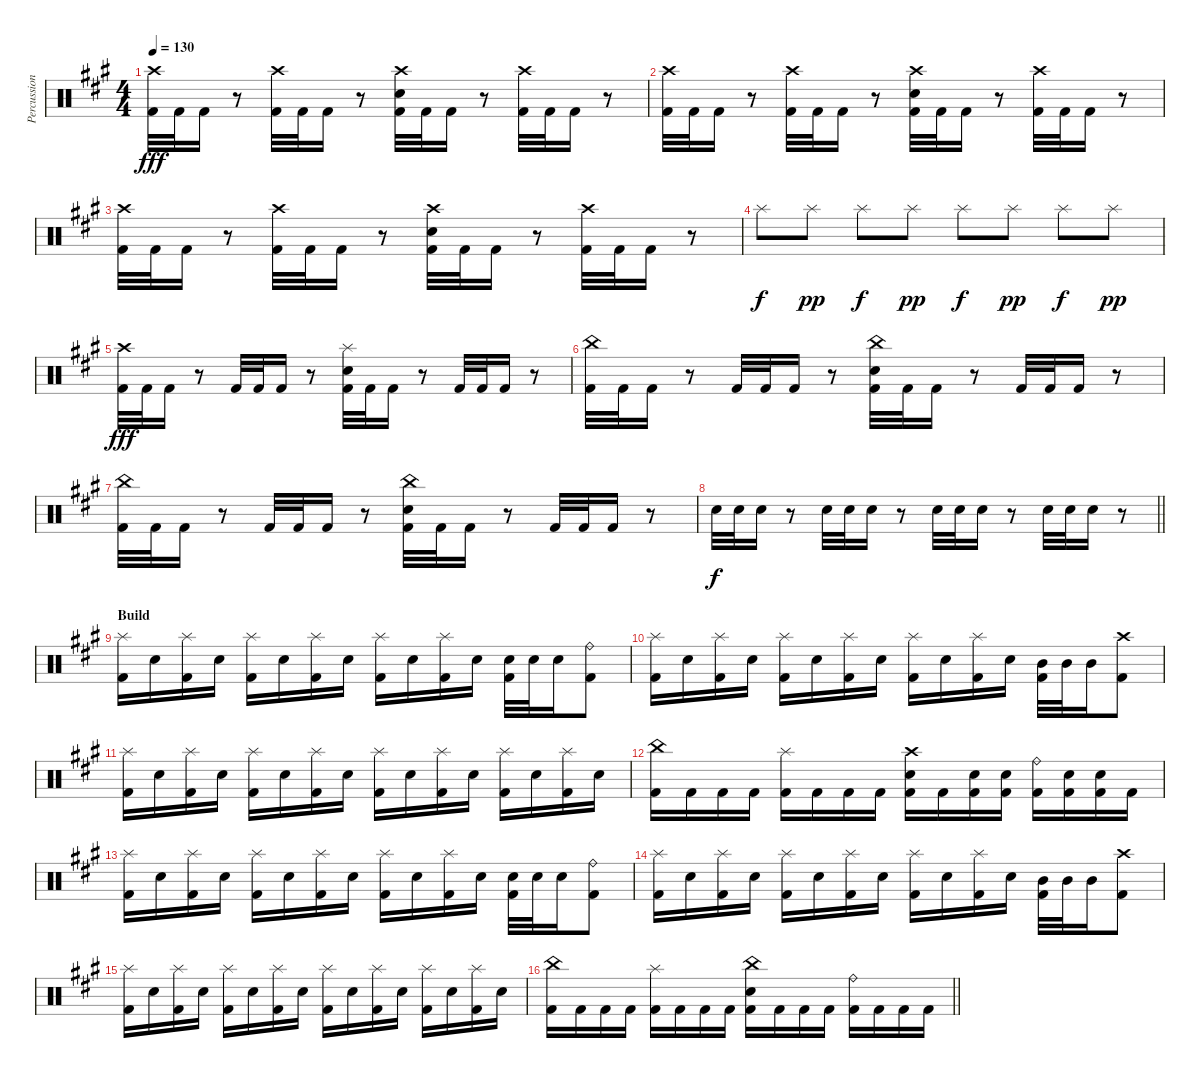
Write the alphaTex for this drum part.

\track ("Percussion" "Percussion") {instrument percussion bank 127}
\staff {score}
\articulation defaults
\ts (4 4)
\tempo 130
\clef neutral
\ks a
("Crash high (hit)" "Kick (hit) 2").32{dy fff} "Kick (hit) 2".32 "Kick (hit) 2".16 r.8 ("Crash high (hit)" "Kick (hit) 2").32 "Kick (hit) 2".32 "Kick (hit) 2".16 r.8 ("Crash high (hit)" "Electric Snare (hit)" "Kick (hit) 2").32 "Kick (hit) 2".32 "Kick (hit) 2".16 r.8 ("Crash high (hit)" "Kick (hit) 2").32 "Kick (hit) 2".32 "Kick (hit) 2".16 r.8 |
("Crash high (hit)" "Kick (hit) 2").32 "Kick (hit) 2".32 "Kick (hit) 2".16 r.8 ("Crash high (hit)" "Kick (hit) 2").32 "Kick (hit) 2".32 "Kick (hit) 2".16 r.8 ("Crash high (hit)" "Electric Snare (hit)" "Kick (hit) 2").32 "Kick (hit) 2".32 "Kick (hit) 2".16 r.8 ("Crash high (hit)" "Kick (hit) 2").32 "Kick (hit) 2".32 "Kick (hit) 2".16 r.8 |
("Crash high (hit)" "Kick (hit) 2").32 "Kick (hit) 2".32 "Kick (hit) 2".16 r.8 ("Crash high (hit)" "Kick (hit) 2").32 "Kick (hit) 2".32 "Kick (hit) 2".16 r.8 ("Crash high (hit)" "Electric Snare (hit)" "Kick (hit) 2").32 "Kick (hit) 2".32 "Kick (hit) 2".16 r.8 ("Crash high (hit)" "Kick (hit) 2").32 "Kick (hit) 2".32 "Kick (hit) 2".16 r.8 |
"Splash (hit)".8{dy f} "Splash (hit)".8{dy pp} "Splash (hit)".8{dy f} "Splash (hit)".8{dy pp} "Splash (hit)".8{dy f} "Splash (hit)".8{dy pp} "Splash (hit)".8{dy f} "Splash (hit)".8{dy pp} |
("Crash high (hit)" "Kick (hit) 2").32{dy fff} "Kick (hit) 2".32 "Kick (hit) 2".16 r.8 "Kick (hit) 2".32 "Kick (hit) 2".32 "Kick (hit) 2".16 r.8 ("Splash (hit)" "Electric Snare (hit)" "Kick (hit) 2").32 "Kick (hit) 2".32 "Kick (hit) 2".16 r.8 "Kick (hit) 2".32 "Kick (hit) 2".32 "Kick (hit) 2".16 r.8 |
("China (hit)" "Kick (hit) 2").32 "Kick (hit) 2".32 "Kick (hit) 2".16 r.8 "Kick (hit) 2".32 "Kick (hit) 2".32 "Kick (hit) 2".16 r.8 ("China (hit)" "Electric Snare (hit)" "Kick (hit) 2").32 "Kick (hit) 2".32 "Kick (hit) 2".16 r.8 "Kick (hit) 2".32 "Kick (hit) 2".32 "Kick (hit) 2".16 r.8 |
("China (hit)" "Kick (hit) 2").32 "Kick (hit) 2".32 "Kick (hit) 2".16 r.8 "Kick (hit) 2".32 "Kick (hit) 2".32 "Kick (hit) 2".16 r.8 ("China (hit)" "Electric Snare (hit)" "Kick (hit) 2").32 "Kick (hit) 2".32 "Kick (hit) 2".16 r.8 "Kick (hit) 2".32 "Kick (hit) 2".32 "Kick (hit) 2".16 r.8 |
\barLineRight lightlight "Electric Snare (hit)".32{dy f} "Electric Snare (hit)".32 "Electric Snare (hit)".16
r.8 "Electric Snare (hit)".32 "Electric Snare (hit)".32 "Electric Snare (hit)".16 r.8 "Electric Snare (hit)".32 "Electric Snare (hit)".32 "Electric Snare (hit)".16 r.8 "Electric Snare (hit)".32 "Electric Snare (hit)".32 "Electric Snare (hit)".16 r.8 |
\section ("" "Build")
("Splash (hit)" "Kick (hit) 2").16 "Electric Snare (hit)".16 ("Splash (hit)" "Kick (hit) 2").16 "Electric Snare (hit)".16 ("Splash (hit)" "Kick (hit) 2").16 "Electric Snare (hit)".16 ("Splash (hit)" "Kick (hit) 2").16 "Electric Snare (hit)".16 ("Splash (hit)" "Kick (hit) 2").16 "Electric Snare (hit)".16 ("Splash (hit)" "Kick (hit) 2").16 "Electric Snare (hit)".16 ("Electric Snare (hit)" "Kick (hit) 2").32 "Electric Snare (hit)".32 "Electric Snare (hit)".16 ("Ride (bell)" "Kick (hit) 2").8 |
("Splash (hit)" "Kick (hit) 2").16 "Electric Snare (hit)".16 ("Splash (hit)" "Kick (hit) 2").16 "Electric Snare (hit)".16 ("Splash (hit)" "Kick (hit) 2").16 "Electric Snare (hit)".16 ("Splash (hit)" "Kick (hit) 2").16 "Electric Snare (hit)".16 ("Splash (hit)" "Kick (hit) 2").16 "Electric Snare (hit)".16 ("Splash (hit)" "Kick (hit) 2").16 "Electric Snare (hit)".16 ("Mid Tom (hit)" "Kick (hit) 2").32 "Mid Tom (hit)".32 "Mid Tom (hit)".16 ("Crash high (hit)" "Kick (hit) 2").8 |
("Splash (hit)" "Kick (hit) 2").16 "Electric Snare (hit)".16 ("Splash (hit)" "Kick (hit) 2").16 "Electric Snare (hit)".16 ("Splash (hit)" "Kick (hit) 2").16 "Electric Snare (hit)".16 ("Splash (hit)" "Kick (hit) 2").16 "Electric Snare (hit)".16 ("Splash (hit)" "Kick (hit) 2").16 "Electric Snare (hit)".16 ("Splash (hit)" "Kick (hit) 2").16 "Electric Snare (hit)".16 ("Splash (hit)" "Kick (hit) 2").16 "Electric Snare (hit)".16 ("Splash (hit)" "Kick (hit) 2").16 "Electric Snare (hit)".16 |
("China (hit)" "Kick (hit) 2").16 "Kick (hit) 2".16 "Kick (hit) 2".16 "Kick (hit) 2".16 ("Splash (hit)" "Kick (hit) 2").16 "Kick (hit) 2".16 "Kick (hit) 2".16 "Kick (hit) 2".16 ("Crash high (hit)" "Electric Snare (hit)" "Kick (hit) 2").16 "Kick (hit) 2".16 ("Electric Snare (hit)" "Kick (hit) 2").16 ("Electric Snare (hit)" "Kick (hit) 2").16 ("Ride (bell)" "Kick (hit) 2").16 ("Electric Snare (hit)" "Kick (hit) 2").16 ("Electric Snare (hit)" "Kick (hit) 2").16 "Kick (hit) 2".16 |
("Splash (hit)" "Kick (hit) 2").16 "Electric Snare (hit)".16 ("Splash (hit)" "Kick (hit) 2").16 "Electric Snare (hit)".16 ("Splash (hit)" "Kick (hit) 2").16 "Electric Snare (hit)".16 ("Splash (hit)" "Kick (hit) 2").16 "Electric Snare (hit)".16 ("Splash (hit)" "Kick (hit) 2").16 "Electric Snare (hit)".16 ("Splash (hit)" "Kick (hit) 2").16 "Electric Snare (hit)".16 ("Electric Snare (hit)" "Kick (hit) 2").32 "Electric Snare (hit)".32 "Electric Snare (hit)".16 ("Ride (bell)" "Kick (hit) 2").8 |
("Splash (hit)" "Kick (hit) 2").16 "Electric Snare (hit)".16 ("Splash (hit)" "Kick (hit) 2").16 "Electric Snare (hit)".16 ("Splash (hit)" "Kick (hit) 2").16 "Electric Snare (hit)".16 ("Splash (hit)" "Kick (hit) 2").16 "Electric Snare (hit)".16 ("Splash (hit)" "Kick (hit) 2").16 "Electric Snare (hit)".16 ("Splash (hit)" "Kick (hit) 2").16 "Electric Snare (hit)".16 ("Mid Tom (hit)" "Kick (hit) 2").32 "Mid Tom (hit)".32 "Mid Tom (hit)".16 ("Crash high (hit)" "Kick (hit) 2").8 |
("Splash (hit)" "Kick (hit) 2").16 "Electric Snare (hit)".16 ("Splash (hit)" "Kick (hit) 2").16 "Electric Snare (hit)".16 ("Splash (hit)" "Kick (hit) 2").16 "Electric Snare (hit)".16 ("Splash (hit)" "Kick (hit) 2").16 "Electric Snare (hit)".16 ("Splash (hit)" "Kick (hit) 2").16 "Electric Snare (hit)".16 ("Splash (hit)" "Kick (hit) 2").16 "Electric Snare (hit)".16 ("Splash (hit)" "Kick (hit) 2").16 "Electric Snare (hit)".16 ("Splash (hit)" "Kick (hit) 2").16 "Electric Snare (hit)".16 |
\barLineRight lightlight
("China (hit)" "Kick (hit) 2").16 "Kick (hit) 2".16 "Kick (hit) 2".16 "Kick (hit) 2".16 ("Splash (hit)" "Kick (hit) 2").16 "Kick (hit) 2".16 "Kick (hit) 2".16 "Kick (hit) 2".16 ("China (hit)" "Electric Snare (hit)" "Kick (hit) 2").16 "Kick (hit) 2".16 "Kick (hit) 2".16 "Kick (hit) 2".16 ("Ride (bell)" "Kick (hit) 2").16 "Kick (hit) 2".16 "Kick (hit) 2".16 "Kick (hit) 2".16
